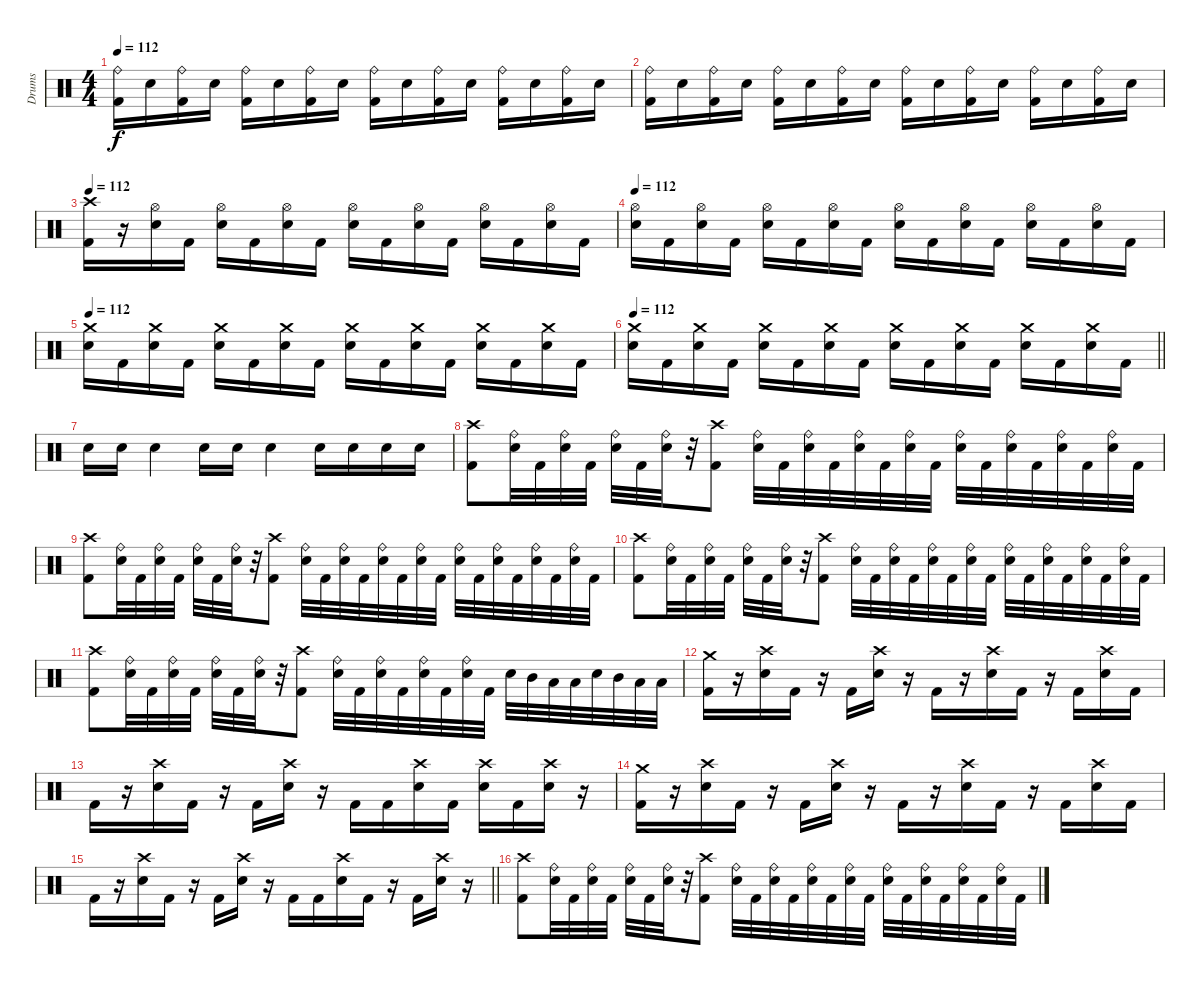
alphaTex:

\track ("Drums" "Drums") {instrument percussion}
\staff
\articulation defaults
\ts (4 4)
\tempo 112
\clef neutral
\ks c
("Ride (bell)" "Kick (hit) 2").16{dy f} "Snare (hit) 2".16 ("Ride (bell)" "Kick (hit) 2").16 "Snare (hit) 2".16 ("Ride (bell)" "Kick (hit) 2").16 "Snare (hit) 2".16 ("Ride (bell)" "Kick (hit) 2").16 "Snare (hit) 2".16 ("Ride (bell)" "Kick (hit) 2").16 "Snare (hit) 2".16 ("Ride (bell)" "Kick (hit) 2").16 "Snare (hit) 2".16 ("Ride (bell)" "Kick (hit) 2").16 "Snare (hit) 2".16 ("Ride (bell)" "Kick (hit) 2").16 "Snare (hit) 2".16 |
("Ride (bell)" "Kick (hit) 2").16 "Snare (hit) 2".16 ("Ride (bell)" "Kick (hit) 2").16 "Snare (hit) 2".16 ("Ride (bell)" "Kick (hit) 2").16 "Snare (hit) 2".16 ("Ride (bell)" "Kick (hit) 2").16 "Snare (hit) 2".16 ("Ride (bell)" "Kick (hit) 2").16 "Snare (hit) 2".16 ("Ride (bell)" "Kick (hit) 2").16 "Snare (hit) 2".16 ("Ride (bell)" "Kick (hit) 2").16 "Snare (hit) 2".16 ("Ride (bell)" "Kick (hit) 2").16 "Snare (hit) 2".16 |
\tempo 112
("Crash high (hit)" "Kick (hit) 2").16 r.16 ("Hi-Hat (open)" "Snare (hit) 2").16 "Kick (hit) 2".16 ("Hi-Hat (open)" "Snare (hit) 2").16 "Kick (hit) 2".16 ("Hi-Hat (open)" "Snare (hit) 2").16 "Kick (hit) 2".16 ("Hi-Hat (open)" "Snare (hit) 2").16 "Kick (hit) 2".16 ("Hi-Hat (open)" "Snare (hit) 2").16 "Kick (hit) 2".16 ("Hi-Hat (open)" "Snare (hit) 2").16 "Kick (hit) 2".16 ("Hi-Hat (open)" "Snare (hit) 2").16 "Kick (hit) 2".16 |
\tempo 112
("Hi-Hat (open)" "Snare (hit) 2").16 "Kick (hit) 2".16 ("Hi-Hat (open)" "Snare (hit) 2").16 "Kick (hit) 2".16 ("Hi-Hat (open)" "Snare (hit) 2").16 "Kick (hit) 2".16 ("Hi-Hat (open)" "Snare (hit) 2").16 "Kick (hit) 2".16 ("Hi-Hat (open)" "Snare (hit) 2").16 "Kick (hit) 2".16 ("Hi-Hat (open)" "Snare (hit) 2").16 "Kick (hit) 2".16 ("Hi-Hat (open)" "Snare (hit) 2").16 "Kick (hit) 2".16 ("Hi-Hat (open)" "Snare (hit) 2").16 "Kick (hit) 2".16 |
\tempo 112
("Crash medium (hit)" "Snare (hit) 2").16 "Kick (hit) 2".16 ("Crash medium (hit)" "Snare (hit) 2").16 "Kick (hit) 2".16 ("Crash medium (hit)" "Snare (hit) 2").16 "Kick (hit) 2".16 ("Crash medium (hit)" "Snare (hit) 2").16 "Kick (hit) 2".16 ("Crash medium (hit)" "Snare (hit) 2").16 "Kick (hit) 2".16 ("Crash medium (hit)" "Snare (hit) 2").16 "Kick (hit) 2".16 ("Crash medium (hit)" "Snare (hit) 2").16 "Kick (hit) 2".16 ("Crash medium (hit)" "Snare (hit) 2").16 "Kick (hit) 2".16 |
\tempo 112
\barLineRight lightlight
("Crash medium (hit)" "Snare (hit) 2").16 "Kick (hit) 2".16 ("Crash medium (hit)" "Snare (hit) 2").16 "Kick (hit) 2".16 ("Crash medium (hit)" "Snare (hit) 2").16 "Kick (hit) 2".16 ("Crash medium (hit)" "Snare (hit) 2").16 "Kick (hit) 2".16 ("Crash medium (hit)" "Snare (hit) 2").16 "Kick (hit) 2".16 ("Crash medium (hit)" "Snare (hit) 2").16 "Kick (hit) 2".16 ("Crash medium (hit)" "Snare (hit) 2").16 "Kick (hit) 2".16 ("Crash medium (hit)" "Snare (hit) 2").16 "Kick (hit) 2".16 |
\section ("" "")
"Snare (hit) 2".16 "Snare (hit) 2".16 "Snare (hit) 2".4 "Snare (hit) 2".16 "Snare (hit) 2".16 "Snare (hit) 2".4 "Snare (hit) 2".16 "Snare (hit) 2".16 "Snare (hit) 2".16 "Snare (hit) 2".16 |
("Crash high (hit)" "Kick (hit) 2").8 ("Ride (bell)" "Snare (hit) 2").32 "Kick (hit) 2".32 ("Ride (bell)" "Snare (hit) 2").32 "Kick (hit) 2".32 ("Ride (bell)" "Snare (hit) 2").32 "Kick (hit) 2".32 ("Ride (bell)" "Snare (hit) 2").32 r.32 ("Crash high (hit)" "Kick (hit) 2").8 ("Ride (bell)" "Snare (hit) 2").32 "Kick (hit) 2".32 ("Ride (bell)" "Snare (hit) 2").32 "Kick (hit) 2".32 ("Ride (bell)" "Snare (hit) 2").32 "Kick (hit) 2".32 ("Ride (bell)" "Snare (hit) 2").32 "Kick (hit) 2".32 ("Ride (bell)" "Snare (hit) 2").32 "Kick (hit) 2".32 ("Ride (bell)" "Snare (hit) 2").32 "Kick (hit) 2".32 ("Ride (bell)" "Snare (hit) 2").32 "Kick (hit) 2".32 ("Ride (bell)" "Snare (hit) 2").32 "Kick (hit) 2".32 |
("Crash high (hit)" "Kick (hit) 2").8 ("Ride (bell)" "Snare (hit) 2").32 "Kick (hit) 2".32 ("Ride (bell)" "Snare (hit) 2").32 "Kick (hit) 2".32 ("Ride (bell)" "Snare (hit) 2").32 "Kick (hit) 2".32 ("Ride (bell)" "Snare (hit) 2").32 r.32 ("Crash high (hit)" "Kick (hit) 2").8 ("Ride (bell)" "Snare (hit) 2").32 "Kick (hit) 2".32 ("Ride (bell)" "Snare (hit) 2").32 "Kick (hit) 2".32 ("Ride (bell)" "Snare (hit) 2").32 "Kick (hit) 2".32 ("Ride (bell)" "Snare (hit) 2").32 "Kick (hit) 2".32 ("Ride (bell)" "Snare (hit) 2").32 "Kick (hit) 2".32 ("Ride (bell)" "Snare (hit) 2").32 "Kick (hit) 2".32 ("Ride (bell)" "Snare (hit) 2").32 "Kick (hit) 2".32 ("Ride (bell)" "Snare (hit) 2").32 "Kick (hit) 2".32 |
("Crash high (hit)" "Kick (hit) 2").8 ("Ride (bell)" "Snare (hit) 2").32 "Kick (hit) 2".32 ("Ride (bell)" "Snare (hit) 2").32 "Kick (hit) 2".32 ("Ride (bell)" "Snare (hit) 2").32 "Kick (hit) 2".32 ("Ride (bell)" "Snare (hit) 2").32 r.32 ("Crash high (hit)" "Kick (hit) 2").8 ("Ride (bell)" "Snare (hit) 2").32 "Kick (hit) 2".32 ("Ride (bell)" "Snare (hit) 2").32 "Kick (hit) 2".32 ("Ride (bell)" "Snare (hit) 2").32 "Kick (hit) 2".32 ("Ride (bell)" "Snare (hit) 2").32 "Kick (hit) 2".32 ("Ride (bell)" "Snare (hit) 2").32 "Kick (hit) 2".32 ("Ride (bell)" "Snare (hit) 2").32 "Kick (hit) 2".32 ("Ride (bell)" "Snare (hit) 2").32 "Kick (hit) 2".32 ("Ride (bell)" "Snare (hit) 2").32 "Kick (hit) 2".32 |
("Crash high (hit)" "Kick (hit) 2").8 ("Ride (bell)" "Snare (hit) 2").32 "Kick (hit) 2".32 ("Ride (bell)" "Snare (hit) 2").32 "Kick (hit) 2".32 ("Ride (bell)" "Snare (hit) 2").32 "Kick (hit) 2".32 ("Ride (bell)" "Snare (hit) 2").32 r.32 ("Crash high (hit)" "Kick (hit) 2").8 ("Ride (bell)" "Snare (hit) 2").32 "Kick (hit) 2".32 ("Ride (bell)" "Snare (hit) 2").32 "Kick (hit) 2".32 ("Ride (bell)" "Snare (hit) 2").32 "Kick (hit) 2".32 ("Ride (bell)" "Snare (hit) 2").32 "Kick (hit) 2".32 "Snare (hit) 2".32 "Mid Tom (hit)".32 "Low Tom (hit)".32 "Low Floor Tom (hit)".32 "Snare (hit) 2".32 "Mid Tom (hit)".32 "Low Tom (hit)".32 "Low Floor Tom (hit)".32 |
("Crash medium (hit)" "Kick (hit) 2").16 r.16 ("Crash high (hit)" "Snare (hit) 2").16 "Kick (hit) 2".16 r.16 "Kick (hit) 2".16 ("Crash high (hit)" "Snare (hit) 2").16 r.16 "Kick (hit) 2".16 r.16 ("Crash high (hit)" "Snare (hit) 2").16 "Kick (hit) 2".16 r.16 "Kick (hit) 2".16 ("Crash high (hit)" "Snare (hit) 2").16 "Kick (hit) 2".16 |
"Kick (hit) 2".16 r.16 ("Crash high (hit)" "Snare (hit) 2").16 "Kick (hit) 2".16 r.16 "Kick (hit) 2".16 ("Crash high (hit)" "Snare (hit) 2").16 r.16 "Kick (hit) 2".16 "Kick (hit) 2".16 ("Crash high (hit)" "Snare (hit) 2").16 "Kick (hit) 2".16 ("Crash high (hit)" "Snare (hit) 2").16 "Kick (hit) 2".16 ("Crash high (hit)" "Snare (hit) 2").16 r.16 |
("Crash medium (hit)" "Kick (hit) 2").16 r.16 ("Crash high (hit)" "Snare (hit) 2").16 "Kick (hit) 2".16 r.16 "Kick (hit) 2".16 ("Crash high (hit)" "Snare (hit) 2").16 r.16 "Kick (hit) 2".16 r.16 ("Crash high (hit)" "Snare (hit) 2").16 "Kick (hit) 2".16 r.16 "Kick (hit) 2".16 ("Crash high (hit)" "Snare (hit) 2").16 "Kick (hit) 2".16 |
\barLineRight lightlight "Kick (hit) 2".16
r.16 ("Crash high (hit)" "Snare (hit) 2").16 "Kick (hit) 2".16 r.16 "Kick (hit) 2".16 ("Crash high (hit)" "Snare (hit) 2").16 r.16 "Kick (hit) 2".16 "Kick (hit) 2".16 ("Crash high (hit)" "Snare (hit) 2").16 "Kick (hit) 2".16 r.16 "Kick (hit) 2".16 ("Crash high (hit)" "Snare (hit) 2").16 r.16 |
("Crash high (hit)" "Kick (hit) 2").8 ("Ride (bell)" "Snare (hit) 2").32 "Kick (hit) 2".32 ("Ride (bell)" "Snare (hit) 2").32 "Kick (hit) 2".32 ("Ride (bell)" "Snare (hit) 2").32 "Kick (hit) 2".32 ("Ride (bell)" "Snare (hit) 2").32 r.32 ("Crash high (hit)" "Kick (hit) 2").8 ("Ride (bell)" "Snare (hit) 2").32 "Kick (hit) 2".32 ("Ride (bell)" "Snare (hit) 2").32 "Kick (hit) 2".32 ("Ride (bell)" "Snare (hit) 2").32 "Kick (hit) 2".32 ("Ride (bell)" "Snare (hit) 2").32 "Kick (hit) 2".32 ("Ride (bell)" "Snare (hit) 2").32 "Kick (hit) 2".32 ("Ride (bell)" "Snare (hit) 2").32 "Kick (hit) 2".32 ("Ride (bell)" "Snare (hit) 2").32 "Kick (hit) 2".32 ("Ride (bell)" "Snare (hit) 2").32 "Kick (hit) 2".32
